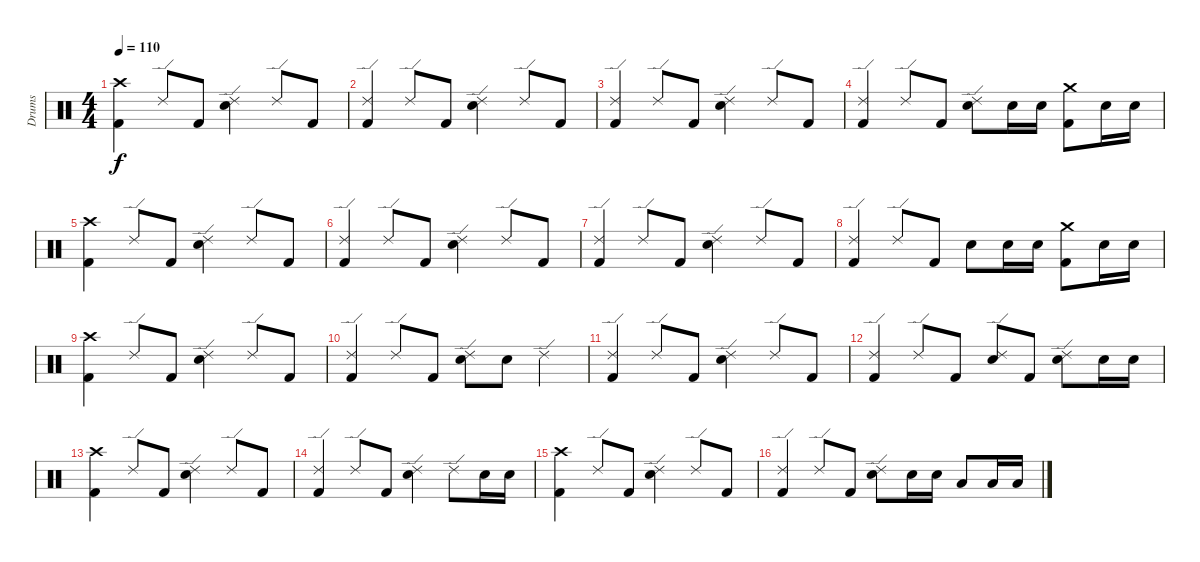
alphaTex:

\track ("Drums" "Drums") {instrument percussion}
\staff {score}
\articulation defaults
\ts (4 4)
\tempo 110
\clef neutral
\ks c
("Crash high (hit)" "Kick (hit) 2").4{dy f} "Ride (edge) 2".8 "Kick (hit) 2".8 ("Ride (edge) 2" "Electric Snare (hit)").4 "Ride (edge) 2".8 "Kick (hit) 2".8 |
("Ride (edge) 2" "Kick (hit) 2").4 "Ride (edge) 2".8 "Kick (hit) 2".8 ("Ride (edge) 2" "Electric Snare (hit)").4 "Ride (edge) 2".8 "Kick (hit) 2".8 |
("Ride (edge) 2" "Kick (hit) 2").4 "Ride (edge) 2".8 "Kick (hit) 2".8 ("Ride (edge) 2" "Electric Snare (hit)").4 "Ride (edge) 2".8 "Kick (hit) 2".8 |
("Ride (edge) 2" "Kick (hit) 2").4 "Ride (edge) 2".8 "Kick (hit) 2".8 ("Ride (edge) 2" "Electric Snare (hit)").8 "Electric Snare (hit)".16 "Electric Snare (hit)".16 ("Crash medium (hit)" "Kick (hit) 2").8 "Electric Snare (hit)".16 "Electric Snare (hit)".16 |
("Crash high (hit)" "Kick (hit) 2").4 "Ride (edge) 2".8 "Kick (hit) 2".8 ("Ride (edge) 2" "Electric Snare (hit)").4 "Ride (edge) 2".8 "Kick (hit) 2".8 |
("Ride (edge) 2" "Kick (hit) 2").4 "Ride (edge) 2".8 "Kick (hit) 2".8 ("Ride (edge) 2" "Electric Snare (hit)").4 "Ride (edge) 2".8 "Kick (hit) 2".8 |
("Ride (edge) 2" "Kick (hit) 2").4 "Ride (edge) 2".8 "Kick (hit) 2".8 ("Ride (edge) 2" "Electric Snare (hit)").4 "Ride (edge) 2".8 "Kick (hit) 2".8 |
("Ride (edge) 2" "Kick (hit) 2").4 "Ride (edge) 2".8 "Kick (hit) 2".8 "Electric Snare (hit)".8 "Electric Snare (hit)".16 "Electric Snare (hit)".16 ("Crash medium (hit)" "Kick (hit) 2").8 "Electric Snare (hit)".16 "Electric Snare (hit)".16 |
("Crash high (hit)" "Kick (hit) 2").4 "Ride (edge) 2".8 "Kick (hit) 2".8 ("Ride (edge) 2" "Electric Snare (hit)").4 "Ride (edge) 2".8 "Kick (hit) 2".8 |
("Ride (edge) 2" "Kick (hit) 2").4 "Ride (edge) 2".8 "Kick (hit) 2".8 ("Ride (edge) 2" "Electric Snare (hit)").8 "Electric Snare (hit)".8 "Ride (edge) 2".4 |
("Ride (edge) 2" "Kick (hit) 2").4 "Ride (edge) 2".8 "Kick (hit) 2".8 ("Ride (edge) 2" "Electric Snare (hit)").4 "Ride (edge) 2".8 "Kick (hit) 2".8 |
("Ride (edge) 2" "Kick (hit) 2").4 "Ride (edge) 2".8 "Kick (hit) 2".8 ("Ride (edge) 2" "Electric Snare (hit)").8 "Kick (hit) 2".8 ("Ride (edge) 2" "Electric Snare (hit)").8 "Electric Snare (hit)".16 "Electric Snare (hit)".16 |
("Crash high (hit)" "Kick (hit) 2").4 "Ride (edge) 2".8 "Kick (hit) 2".8 ("Ride (edge) 2" "Electric Snare (hit)").4 "Ride (edge) 2".8 "Kick (hit) 2".8 |
("Ride (edge) 2" "Kick (hit) 2").4 "Ride (edge) 2".8 "Kick (hit) 2".8 ("Ride (edge) 2" "Electric Snare (hit)").4 "Ride (edge) 2".8 "Electric Snare (hit)".16 "Electric Snare (hit)".16 |
("Crash high (hit)" "Kick (hit) 2").4 "Ride (edge) 2".8 "Kick (hit) 2".8 ("Ride (edge) 2" "Electric Snare (hit)").4 "Ride (edge) 2".8 "Kick (hit) 2".8 |
("Ride (edge) 2" "Kick (hit) 2").4 "Ride (edge) 2".8 "Kick (hit) 2".8 ("Ride (edge) 2" "Electric Snare (hit)").8 "Electric Snare (hit)".16 "Electric Snare (hit)".16 "Low Tom (hit)".8 "Low Tom (hit)".16 "Low Tom (hit)".16
